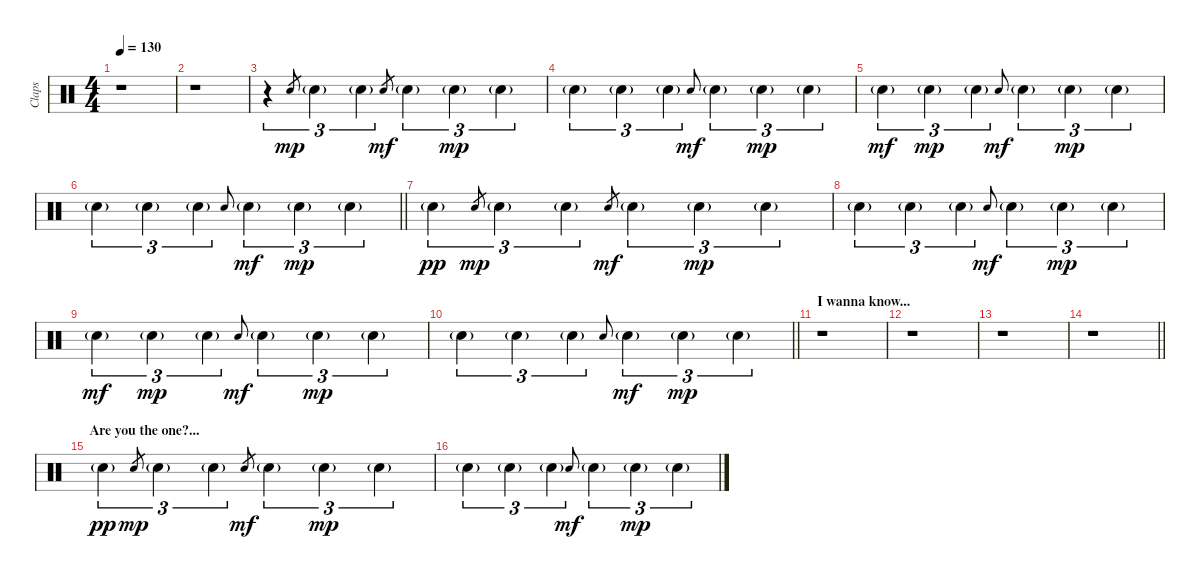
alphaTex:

\track ("Claps" "Claps") {instrument percussion}
\staff {score}
\articulation defaults
\ts (4 4)
\tempo 130
\clef neutral
\ks c
r.1{dy mp} |
r.1 |
r.4{tu (3 2)} "Hand Clap (hit)".8{gr} "Hand Clap (hit)"{g}.4{tu (3 2)} "Hand Clap (hit)"{g}.4{tu (3 2)} "Hand Clap (hit)".8{gr dy mf} "Hand Clap (hit)"{g}.4{tu (3 2)} "Hand Clap (hit)"{g}.4{tu (3 2) dy mp} "Hand Clap (hit)"{g}.4{tu (3 2)} |
"Hand Clap (hit)"{g}.4{tu (3 2)} "Hand Clap (hit)"{g}.4{tu (3 2)} "Hand Clap (hit)"{g}.4{tu (3 2)} "Hand Clap (hit)".8{gr onbeat dy mf} "Hand Clap (hit)"{g}.4{tu (3 2)} "Hand Clap (hit)"{g}.4{tu (3 2) dy mp} "Hand Clap (hit)"{g}.4{tu (3 2)} |
"Hand Clap (hit)"{g}.4{tu (3 2) dy mf} "Hand Clap (hit)"{g}.4{tu (3 2) dy mp} "Hand Clap (hit)"{g}.4{tu (3 2)} "Hand Clap (hit)".8{gr onbeat dy mf} "Hand Clap (hit)"{g}.4{tu (3 2)} "Hand Clap (hit)"{g}.4{tu (3 2) dy mp} "Hand Clap (hit)"{g}.4{tu (3 2)} |
\barLineRight lightlight "Hand Clap (hit)"{g}.4{tu (3 2)} "Hand Clap (hit)"{g}.4{tu (3 2)} "Hand Clap (hit)"{g}.4{tu (3 2)} "Hand Clap (hit)".8{gr onbeat} "Hand Clap (hit)"{g}.4{tu (3 2) dy mf} "Hand Clap (hit)"{g}.4{tu (3 2) dy mp} "Hand Clap (hit)"{g}.4{tu (3 2)}
|
"Hand Clap (hit)"{g}.4{tu (3 2) dy pp} "Hand Clap (hit)".8{gr dy mp} "Hand Clap (hit)"{g}.4{tu (3 2)} "Hand Clap (hit)"{g}.4{tu (3 2)} "Hand Clap (hit)".8{gr dy mf} "Hand Clap (hit)"{g}.4{tu (3 2)} "Hand Clap (hit)"{g}.4{tu (3 2) dy mp} "Hand Clap (hit)"{g}.4{tu (3 2)} |
"Hand Clap (hit)"{g}.4{tu (3 2)} "Hand Clap (hit)"{g}.4{tu (3 2)} "Hand Clap (hit)"{g}.4{tu (3 2)} "Hand Clap (hit)".8{gr onbeat dy mf} "Hand Clap (hit)"{g}.4{tu (3 2)} "Hand Clap (hit)"{g}.4{tu (3 2) dy mp} "Hand Clap (hit)"{g}.4{tu (3 2)} |
"Hand Clap (hit)"{g}.4{tu (3 2) dy mf} "Hand Clap (hit)"{g}.4{tu (3 2) dy mp} "Hand Clap (hit)"{g}.4{tu (3 2)} "Hand Clap (hit)".8{gr onbeat dy mf} "Hand Clap (hit)"{g}.4{tu (3 2)} "Hand Clap (hit)"{g}.4{tu (3 2) dy mp} "Hand Clap (hit)"{g}.4{tu (3 2)} |
\barLineRight lightlight "Hand Clap (hit)"{g}.4{tu (3 2)} "Hand Clap (hit)"{g}.4{tu (3 2)} "Hand Clap (hit)"{g}.4{tu (3 2)} "Hand Clap (hit)".8{gr onbeat} "Hand Clap (hit)"{g}.4{tu (3 2) dy mf} "Hand Clap (hit)"{g}.4{tu (3 2) dy mp} "Hand Clap (hit)"{g}.4{tu (3 2)}
|
\section ("" "I wanna know...")
r.1 |
r.1 |
r.1 |
\barLineRight lightlight
r.1 |
\section ("" "Are you the one?...")
"Hand Clap (hit)"{g}.4{tu (3 2) dy pp} "Hand Clap (hit)".8{gr dy mp} "Hand Clap (hit)"{g}.4{tu (3 2)} "Hand Clap (hit)"{g}.4{tu (3 2)} "Hand Clap (hit)".8{gr dy mf} "Hand Clap (hit)"{g}.4{tu (3 2)} "Hand Clap (hit)"{g}.4{tu (3 2) dy mp} "Hand Clap (hit)"{g}.4{tu (3 2)} |
"Hand Clap (hit)"{g}.4{tu (3 2)} "Hand Clap (hit)"{g}.4{tu (3 2)} "Hand Clap (hit)"{g}.4{tu (3 2)} "Hand Clap (hit)".8{gr onbeat dy mf} "Hand Clap (hit)"{g}.4{tu (3 2)} "Hand Clap (hit)"{g}.4{tu (3 2) dy mp} "Hand Clap (hit)"{g}.4{tu (3 2)}
